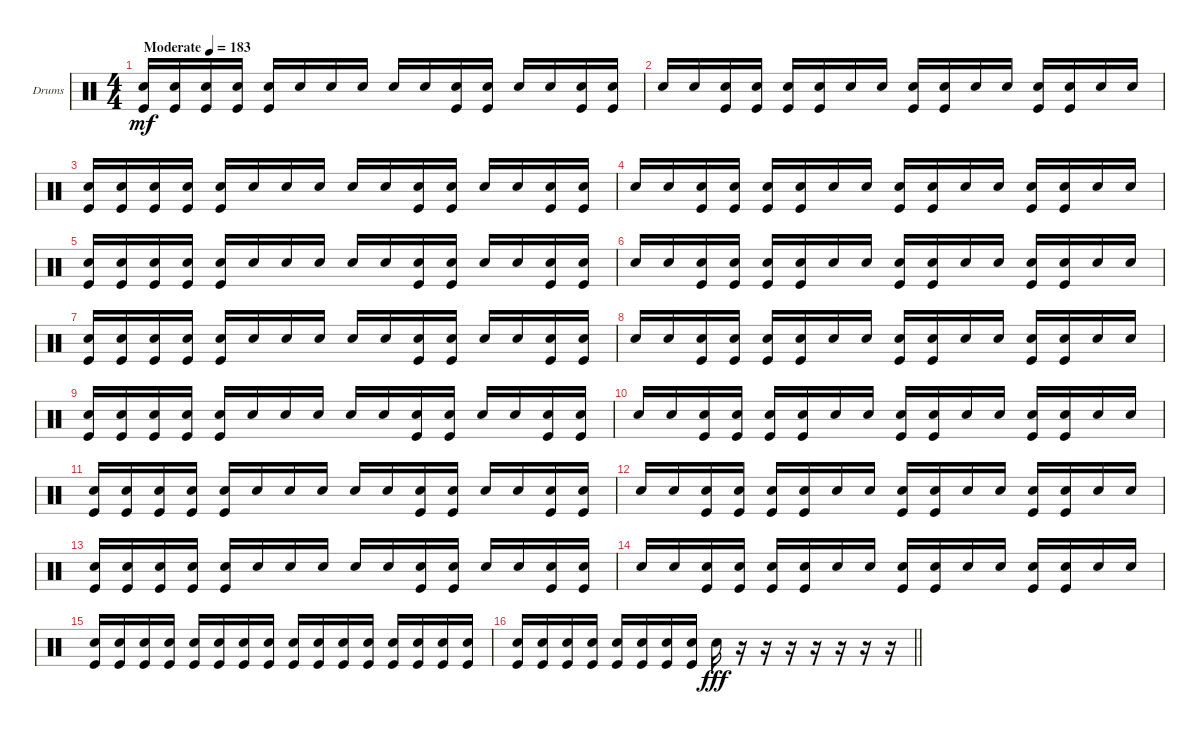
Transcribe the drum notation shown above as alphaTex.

\bracketExtendMode groupsimilarinstruments
\firstSystemTrackNameOrientation horizontal
\otherSystemsTrackNameOrientation horizontal
\track ("Drumkit" "Drums") {instrument percussion}
\staff {score}
\articulation defaults
\ts (4 4)
\beaming (8 2 2 2 2)
\tempo (183 "Moderate")
\clef neutral
\scale
0.474178
\ks c
("Snare (hit) 2" "Kick (hit)").16{dy mf} ("Snare (hit) 2" "Kick (hit)").16 ("Snare (hit) 2" "Kick (hit)").16 ("Snare (hit) 2" "Kick (hit)").16 ("Snare (hit) 2" "Kick (hit)").16 "Snare (hit) 2".16 "Snare (hit) 2".16 "Snare (hit) 2".16 "Snare (hit) 2".16 "Snare (hit) 2".16 ("Snare (hit) 2" "Kick (hit)").16 ("Snare (hit) 2" "Kick (hit)").16 "Snare (hit) 2".16 "Snare (hit) 2".16 ("Snare (hit) 2" "Kick (hit)").16 ("Snare (hit) 2" "Kick (hit)").16 |
\scale
0.262911 "Snare (hit) 2".16 "Snare (hit) 2".16 ("Snare (hit) 2" "Kick (hit)").16 ("Snare (hit) 2" "Kick (hit)").16 ("Snare (hit) 2" "Kick (hit)").16 ("Snare (hit) 2" "Kick (hit)").16 "Snare (hit) 2".16 "Snare (hit) 2".16 ("Snare (hit) 2" "Kick (hit)").16 ("Snare (hit) 2" "Kick (hit)").16 "Snare (hit) 2".16 "Snare (hit) 2".16 ("Snare (hit) 2" "Kick (hit)").16 ("Snare (hit) 2" "Kick (hit)").16 "Snare (hit) 2".16 "Snare (hit) 2".16 |
\scale
0.262911 ("Snare (hit) 2" "Kick (hit)").16 ("Snare (hit) 2" "Kick (hit)").16 ("Snare (hit) 2" "Kick (hit)").16 ("Snare (hit) 2" "Kick (hit)").16 ("Snare (hit) 2" "Kick (hit)").16 "Snare (hit) 2".16 "Snare (hit) 2".16 "Snare (hit) 2".16 "Snare (hit) 2".16 "Snare (hit) 2".16 ("Snare (hit) 2" "Kick (hit)").16 ("Snare (hit) 2" "Kick (hit)").16 "Snare (hit) 2".16 "Snare (hit) 2".16 ("Snare (hit) 2" "Kick (hit)").16 ("Snare (hit) 2" "Kick (hit)").16 |
\scale
0.333333 "Snare (hit) 2".16 "Snare (hit) 2".16 ("Snare (hit) 2" "Kick (hit)").16 ("Snare (hit) 2" "Kick (hit)").16 ("Snare (hit) 2" "Kick (hit)").16 ("Snare (hit) 2" "Kick (hit)").16 "Snare (hit) 2".16 "Snare (hit) 2".16 ("Snare (hit) 2" "Kick (hit)").16 ("Snare (hit) 2" "Kick (hit)").16 "Snare (hit) 2".16 "Snare (hit) 2".16 ("Snare (hit) 2" "Kick (hit)").16 ("Snare (hit) 2" "Kick (hit)").16 "Snare (hit) 2".16 "Snare (hit) 2".16 |
\scale
0.333333 ("Snare (hit) 2" "Kick (hit)").16 ("Snare (hit) 2" "Kick (hit)").16 ("Snare (hit) 2" "Kick (hit)").16 ("Snare (hit) 2" "Kick (hit)").16 ("Snare (hit) 2" "Kick (hit)").16 "Snare (hit) 2".16 "Snare (hit) 2".16 "Snare (hit) 2".16 "Snare (hit) 2".16 "Snare (hit) 2".16 ("Snare (hit) 2" "Kick (hit)").16 ("Snare (hit) 2" "Kick (hit)").16 "Snare (hit) 2".16 "Snare (hit) 2".16 ("Snare (hit) 2" "Kick (hit)").16 ("Snare (hit) 2" "Kick (hit)").16 |
\scale
0.333333 "Snare (hit) 2".16 "Snare (hit) 2".16 ("Snare (hit) 2" "Kick (hit)").16 ("Snare (hit) 2" "Kick (hit)").16 ("Snare (hit) 2" "Kick (hit)").16 ("Snare (hit) 2" "Kick (hit)").16 "Snare (hit) 2".16 "Snare (hit) 2".16 ("Snare (hit) 2" "Kick (hit)").16 ("Snare (hit) 2" "Kick (hit)").16 "Snare (hit) 2".16 "Snare (hit) 2".16 ("Snare (hit) 2" "Kick (hit)").16 ("Snare (hit) 2" "Kick (hit)").16 "Snare (hit) 2".16 "Snare (hit) 2".16 |
\scale
0.333333 ("Snare (hit) 2" "Kick (hit)").16 ("Snare (hit) 2" "Kick (hit)").16 ("Snare (hit) 2" "Kick (hit)").16 ("Snare (hit) 2" "Kick (hit)").16 ("Snare (hit) 2" "Kick (hit)").16 "Snare (hit) 2".16 "Snare (hit) 2".16 "Snare (hit) 2".16 "Snare (hit) 2".16 "Snare (hit) 2".16 ("Snare (hit) 2" "Kick (hit)").16 ("Snare (hit) 2" "Kick (hit)").16 "Snare (hit) 2".16 "Snare (hit) 2".16 ("Snare (hit) 2" "Kick (hit)").16 ("Snare (hit) 2" "Kick (hit)").16 |
\scale
0.333333 "Snare (hit) 2".16 "Snare (hit) 2".16 ("Snare (hit) 2" "Kick (hit)").16 ("Snare (hit) 2" "Kick (hit)").16 ("Snare (hit) 2" "Kick (hit)").16 ("Snare (hit) 2" "Kick (hit)").16 "Snare (hit) 2".16 "Snare (hit) 2".16 ("Snare (hit) 2" "Kick (hit)").16 ("Snare (hit) 2" "Kick (hit)").16 "Snare (hit) 2".16 "Snare (hit) 2".16 ("Snare (hit) 2" "Kick (hit)").16 ("Snare (hit) 2" "Kick (hit)").16 "Snare (hit) 2".16 "Snare (hit) 2".16 |
\scale
0.333333 ("Snare (hit) 2" "Kick (hit)").16 ("Snare (hit) 2" "Kick (hit)").16 ("Snare (hit) 2" "Kick (hit)").16 ("Snare (hit) 2" "Kick (hit)").16 ("Snare (hit) 2" "Kick (hit)").16 "Snare (hit) 2".16 "Snare (hit) 2".16 "Snare (hit) 2".16 "Snare (hit) 2".16 "Snare (hit) 2".16 ("Snare (hit) 2" "Kick (hit)").16 ("Snare (hit) 2" "Kick (hit)").16 "Snare (hit) 2".16 "Snare (hit) 2".16 ("Snare (hit) 2" "Kick (hit)").16 ("Snare (hit) 2" "Kick (hit)").16 |
\scale
0.333333 "Snare (hit) 2".16 "Snare (hit) 2".16 ("Snare (hit) 2" "Kick (hit)").16 ("Snare (hit) 2" "Kick (hit)").16 ("Snare (hit) 2" "Kick (hit)").16 ("Snare (hit) 2" "Kick (hit)").16 "Snare (hit) 2".16 "Snare (hit) 2".16 ("Snare (hit) 2" "Kick (hit)").16 ("Snare (hit) 2" "Kick (hit)").16 "Snare (hit) 2".16 "Snare (hit) 2".16 ("Snare (hit) 2" "Kick (hit)").16 ("Snare (hit) 2" "Kick (hit)").16 "Snare (hit) 2".16 "Snare (hit) 2".16 |
\scale
0.333333 ("Snare (hit) 2" "Kick (hit)").16 ("Snare (hit) 2" "Kick (hit)").16 ("Snare (hit) 2" "Kick (hit)").16 ("Snare (hit) 2" "Kick (hit)").16 ("Snare (hit) 2" "Kick (hit)").16 "Snare (hit) 2".16 "Snare (hit) 2".16 "Snare (hit) 2".16 "Snare (hit) 2".16 "Snare (hit) 2".16 ("Snare (hit) 2" "Kick (hit)").16 ("Snare (hit) 2" "Kick (hit)").16 "Snare (hit) 2".16 "Snare (hit) 2".16 ("Snare (hit) 2" "Kick (hit)").16 ("Snare (hit) 2" "Kick (hit)").16 |
\scale
0.333333 "Snare (hit) 2".16 "Snare (hit) 2".16 ("Snare (hit) 2" "Kick (hit)").16 ("Snare (hit) 2" "Kick (hit)").16 ("Snare (hit) 2" "Kick (hit)").16 ("Snare (hit) 2" "Kick (hit)").16 "Snare (hit) 2".16 "Snare (hit) 2".16 ("Snare (hit) 2" "Kick (hit)").16 ("Snare (hit) 2" "Kick (hit)").16 "Snare (hit) 2".16 "Snare (hit) 2".16 ("Snare (hit) 2" "Kick (hit)").16 ("Snare (hit) 2" "Kick (hit)").16 "Snare (hit) 2".16 "Snare (hit) 2".16 |
\scale
0.333333 ("Snare (hit) 2" "Kick (hit)").16 ("Snare (hit) 2" "Kick (hit)").16 ("Snare (hit) 2" "Kick (hit)").16 ("Snare (hit) 2" "Kick (hit)").16 ("Snare (hit) 2" "Kick (hit)").16 "Snare (hit) 2".16 "Snare (hit) 2".16 "Snare (hit) 2".16 "Snare (hit) 2".16 "Snare (hit) 2".16 ("Snare (hit) 2" "Kick (hit)").16 ("Snare (hit) 2" "Kick (hit)").16 "Snare (hit) 2".16 "Snare (hit) 2".16 ("Snare (hit) 2" "Kick (hit)").16 ("Snare (hit) 2" "Kick (hit)").16 |
\scale
0.333333 "Snare (hit) 2".16 "Snare (hit) 2".16 ("Snare (hit) 2" "Kick (hit)").16 ("Snare (hit) 2" "Kick (hit)").16 ("Snare (hit) 2" "Kick (hit)").16 ("Snare (hit) 2" "Kick (hit)").16 "Snare (hit) 2".16 "Snare (hit) 2".16 ("Snare (hit) 2" "Kick (hit)").16 ("Snare (hit) 2" "Kick (hit)").16 "Snare (hit) 2".16 "Snare (hit) 2".16 ("Snare (hit) 2" "Kick (hit)").16 ("Snare (hit) 2" "Kick (hit)").16 "Snare (hit) 2".16 "Snare (hit) 2".16 |
\scale
0.333333 ("Snare (hit) 2" "Kick (hit)").16 ("Snare (hit) 2" "Kick (hit)").16 ("Snare (hit) 2" "Kick (hit)").16 ("Snare (hit) 2" "Kick (hit)").16 ("Snare (hit) 2" "Kick (hit)").16 ("Snare (hit) 2" "Kick (hit)").16 ("Snare (hit) 2" "Kick (hit)").16 ("Snare (hit) 2" "Kick (hit)").16 ("Snare (hit) 2" "Kick (hit)").16 ("Snare (hit) 2" "Kick (hit)").16 ("Snare (hit) 2" "Kick (hit)").16 ("Snare (hit) 2" "Kick (hit)").16 ("Snare (hit) 2" "Kick (hit)").16 ("Snare (hit) 2" "Kick (hit)").16 ("Snare (hit) 2" "Kick (hit)").16 ("Snare (hit) 2" "Kick (hit)").16 |
\scale
0.333333
\barLineRight lightlight
("Snare (hit) 2" "Kick (hit)").16 ("Snare (hit) 2" "Kick (hit)").16 ("Snare (hit) 2" "Kick (hit)").16 ("Snare (hit) 2" "Kick (hit)").16 ("Snare (hit) 2" "Kick (hit)").16 ("Snare (hit) 2" "Kick (hit)").16 ("Snare (hit) 2" "Kick (hit)").16 ("Snare (hit) 2" "Kick (hit)").16 "Snare (hit) 2".16{dy fff} r.16 r.16 r.16 r.16 r.16 r.16 r.16
